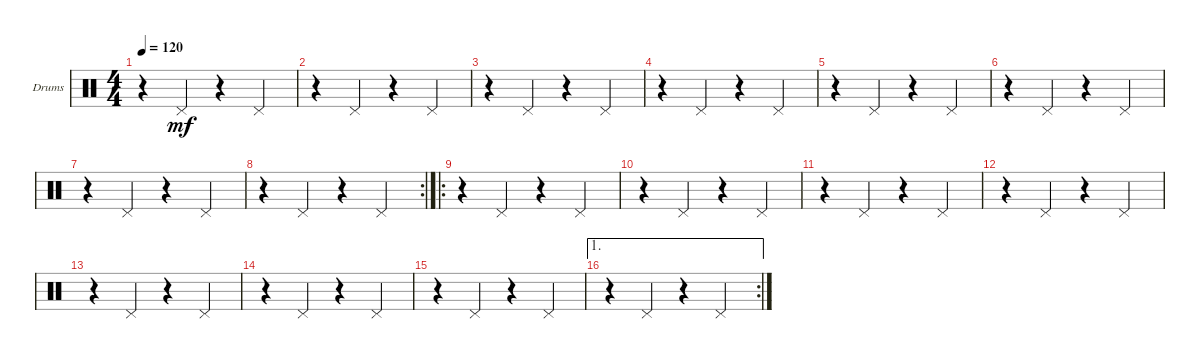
\defaultSystemsLayout 4
\bracketExtendMode groupsimilarinstruments
\firstSystemTrackNameOrientation horizontal
\otherSystemsTrackNameOrientation horizontal
\track ("Drumkit" "Drums") {instrument percussion}
\staff {score}
\articulation defaults
\ts (4 4)
\tempo 120
\clef neutral
\ks c
r.4{dy mf} "Pedal Hi-Hat (hit)".4 r.4 "Pedal Hi-Hat (hit)".4 |
r.4 "Pedal Hi-Hat (hit)".4 r.4 "Pedal Hi-Hat (hit)".4 |
r.4 "Pedal Hi-Hat (hit)".4 r.4 "Pedal Hi-Hat (hit)".4 |
r.4 "Pedal Hi-Hat (hit)".4 r.4 "Pedal Hi-Hat (hit)".4 |
r.4 "Pedal Hi-Hat (hit)".4 r.4 "Pedal Hi-Hat (hit)".4 |
r.4 "Pedal Hi-Hat (hit)".4 r.4 "Pedal Hi-Hat (hit)".4 |
r.4 "Pedal Hi-Hat (hit)".4 r.4 "Pedal Hi-Hat (hit)".4 |
\rc 2
r.4 "Pedal Hi-Hat (hit)".4 r.4 "Pedal Hi-Hat (hit)".4 |
\ro
r.4 "Pedal Hi-Hat (hit)".4 r.4 "Pedal Hi-Hat (hit)".4 |
r.4 "Pedal Hi-Hat (hit)".4 r.4 "Pedal Hi-Hat (hit)".4 |
r.4 "Pedal Hi-Hat (hit)".4 r.4 "Pedal Hi-Hat (hit)".4 |
r.4 "Pedal Hi-Hat (hit)".4 r.4 "Pedal Hi-Hat (hit)".4 |
r.4 "Pedal Hi-Hat (hit)".4 r.4 "Pedal Hi-Hat (hit)".4 |
r.4 "Pedal Hi-Hat (hit)".4 r.4 "Pedal Hi-Hat (hit)".4 |
r.4 "Pedal Hi-Hat (hit)".4 r.4 "Pedal Hi-Hat (hit)".4 |
\ae 1
\rc 2
r.4 "Pedal Hi-Hat (hit)".4 r.4 "Pedal Hi-Hat (hit)".4
